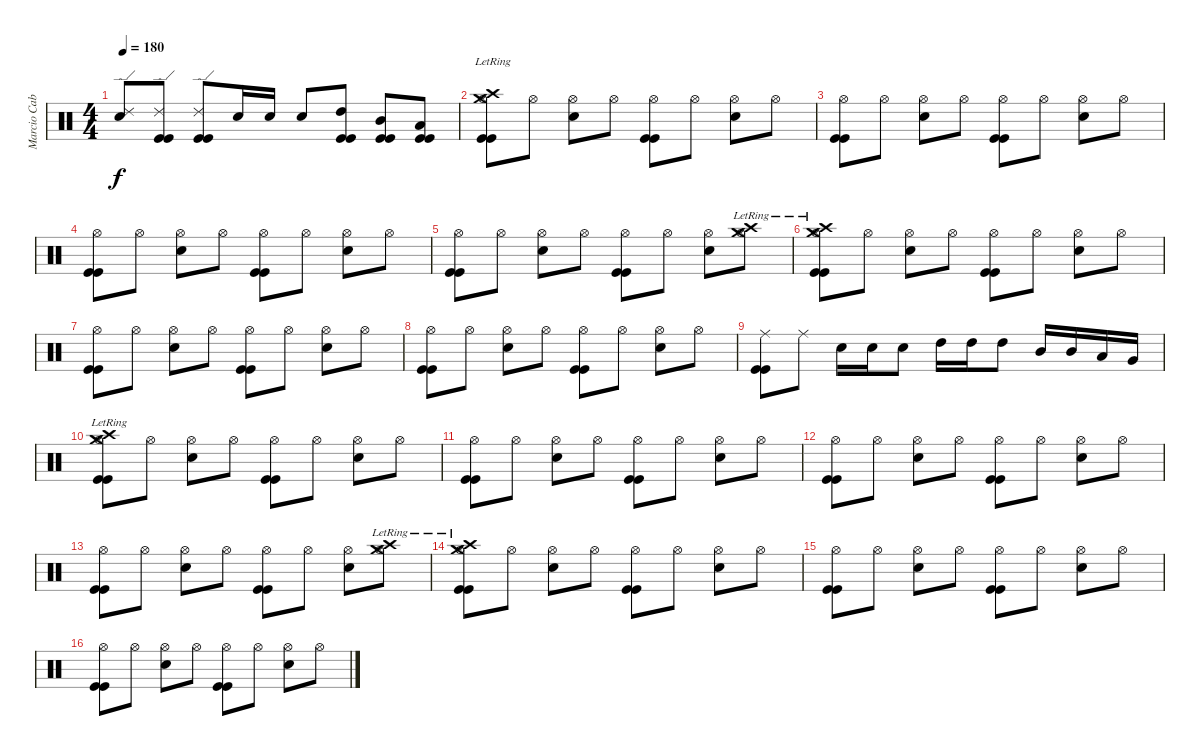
\track ("Marcio Cabrita" "Marcio Cab") {instrument percussion}
\staff {score}
\articulation defaults
\ts (4 4)
\tempo 180
\clef neutral
\ks c
("Snare (hit) 2" "Ride (edge) 2").8{dy f} ("Ride (edge) 2" "Kick (hit)" "Kick (hit)").8 ("Ride (edge) 2" "Kick (hit)" "Kick (hit)").8 "Electric Snare (hit)".16 "Electric Snare (hit)".16 "Electric Snare (hit)".8 ("High Tom (hit)" "Kick (hit)" "Kick (hit)").8 ("Mid Tom (hit)" "Kick (hit)" "Kick (hit)").8 ("Low Tom (hit)" "Kick (hit)" "Kick (hit)").8 |
("Crash high (hit)"{lr} "Crash medium (hit)"{lr} "Hi-Hat (open)" "Kick (hit)" "Kick (hit)").8 "Hi-Hat (open)".8 ("Snare (hit) 2" "Hi-Hat (open)").8 "Hi-Hat (open)".8 ("Hi-Hat (open)" "Kick (hit)" "Kick (hit)").8 "Hi-Hat (open)".8 ("Snare (hit) 2" "Hi-Hat (open)").8 "Hi-Hat (open)".8 |
("Hi-Hat (open)" "Kick (hit)" "Kick (hit)").8 "Hi-Hat (open)".8 ("Snare (hit) 2" "Hi-Hat (open)").8 "Hi-Hat (open)".8 ("Hi-Hat (open)" "Kick (hit)" "Kick (hit)").8 "Hi-Hat (open)".8 ("Snare (hit) 2" "Hi-Hat (open)").8 "Hi-Hat (open)".8 |
("Hi-Hat (open)" "Kick (hit)" "Kick (hit)").8 "Hi-Hat (open)".8 ("Snare (hit) 2" "Hi-Hat (open)").8 "Hi-Hat (open)".8 ("Hi-Hat (open)" "Kick (hit)" "Kick (hit)").8 "Hi-Hat (open)".8 ("Snare (hit) 2" "Hi-Hat (open)").8 "Hi-Hat (open)".8 |
("Hi-Hat (open)" "Kick (hit)" "Kick (hit)").8 "Hi-Hat (open)".8 ("Snare (hit) 2" "Hi-Hat (open)").8 "Hi-Hat (open)".8 ("Hi-Hat (open)" "Kick (hit)" "Kick (hit)").8 "Hi-Hat (open)".8 ("Snare (hit) 2" "Hi-Hat (open)").8 ("Crash high (hit)"{lr} "Crash medium (hit)"{lr} "Hi-Hat (open)").8 |
("Crash high (hit)"{lr} "Crash medium (hit)"{lr} "Hi-Hat (open)" "Kick (hit)" "Kick (hit)").8 "Hi-Hat (open)".8 ("Snare (hit) 2" "Hi-Hat (open)").8 "Hi-Hat (open)".8 ("Hi-Hat (open)" "Kick (hit)" "Kick (hit)").8 "Hi-Hat (open)".8 ("Snare (hit) 2" "Hi-Hat (open)").8 "Hi-Hat (open)".8 |
("Hi-Hat (open)" "Kick (hit)" "Kick (hit)").8 "Hi-Hat (open)".8 ("Snare (hit) 2" "Hi-Hat (open)").8 "Hi-Hat (open)".8 ("Hi-Hat (open)" "Kick (hit)" "Kick (hit)").8 "Hi-Hat (open)".8 ("Snare (hit) 2" "Hi-Hat (open)").8 "Hi-Hat (open)".8 |
("Hi-Hat (open)" "Kick (hit)" "Kick (hit)").8 "Hi-Hat (open)".8 ("Snare (hit) 2" "Hi-Hat (open)").8 "Hi-Hat (open)".8 ("Hi-Hat (open)" "Kick (hit)" "Kick (hit)").8 "Hi-Hat (open)".8 ("Snare (hit) 2" "Hi-Hat (open)").8 "Hi-Hat (open)".8 |
("Ride (middle)" "Kick (hit)" "Kick (hit)").8 "Ride (middle)".8 "Electric Snare (hit)".16 "Electric Snare (hit)".16 "Electric Snare (hit)".8 "High Tom (hit)".16 "High Tom (hit)".16 "High Tom (hit)".8 "Mid Tom (hit)".16 "Mid Tom (hit)".16 "Low Tom (hit)".16 "Very Low Tom (hit)".16 |
("Crash high (hit)"{lr} "Crash medium (hit)"{lr} "Hi-Hat (open)" "Kick (hit)" "Kick (hit)").8 "Hi-Hat (open)".8 ("Snare (hit) 2" "Hi-Hat (open)").8 "Hi-Hat (open)".8 ("Hi-Hat (open)" "Kick (hit)" "Kick (hit)").8 "Hi-Hat (open)".8 ("Snare (hit) 2" "Hi-Hat (open)").8 "Hi-Hat (open)".8 |
("Hi-Hat (open)" "Kick (hit)" "Kick (hit)").8 "Hi-Hat (open)".8 ("Snare (hit) 2" "Hi-Hat (open)").8 "Hi-Hat (open)".8 ("Hi-Hat (open)" "Kick (hit)" "Kick (hit)").8 "Hi-Hat (open)".8 ("Snare (hit) 2" "Hi-Hat (open)").8 "Hi-Hat (open)".8 |
("Hi-Hat (open)" "Kick (hit)" "Kick (hit)").8 "Hi-Hat (open)".8 ("Snare (hit) 2" "Hi-Hat (open)").8 "Hi-Hat (open)".8 ("Hi-Hat (open)" "Kick (hit)" "Kick (hit)").8 "Hi-Hat (open)".8 ("Snare (hit) 2" "Hi-Hat (open)").8 "Hi-Hat (open)".8 |
("Hi-Hat (open)" "Kick (hit)" "Kick (hit)").8 "Hi-Hat (open)".8 ("Snare (hit) 2" "Hi-Hat (open)").8 "Hi-Hat (open)".8 ("Hi-Hat (open)" "Kick (hit)" "Kick (hit)").8 "Hi-Hat (open)".8 ("Snare (hit) 2" "Hi-Hat (open)").8 ("Crash high (hit)"{lr} "Crash medium (hit)"{lr} "Hi-Hat (open)").8 |
("Crash high (hit)"{lr} "Crash medium (hit)"{lr} "Hi-Hat (open)" "Kick (hit)" "Kick (hit)").8 "Hi-Hat (open)".8 ("Snare (hit) 2" "Hi-Hat (open)").8 "Hi-Hat (open)".8 ("Hi-Hat (open)" "Kick (hit)" "Kick (hit)").8 "Hi-Hat (open)".8 ("Snare (hit) 2" "Hi-Hat (open)").8 "Hi-Hat (open)".8 |
("Hi-Hat (open)" "Kick (hit)" "Kick (hit)").8 "Hi-Hat (open)".8 ("Snare (hit) 2" "Hi-Hat (open)").8 "Hi-Hat (open)".8 ("Hi-Hat (open)" "Kick (hit)" "Kick (hit)").8 "Hi-Hat (open)".8 ("Snare (hit) 2" "Hi-Hat (open)").8 "Hi-Hat (open)".8 |
("Hi-Hat (open)" "Kick (hit)" "Kick (hit)").8 "Hi-Hat (open)".8 ("Snare (hit) 2" "Hi-Hat (open)").8 "Hi-Hat (open)".8 ("Hi-Hat (open)" "Kick (hit)" "Kick (hit)").8 "Hi-Hat (open)".8 ("Snare (hit) 2" "Hi-Hat (open)").8 "Hi-Hat (open)".8
